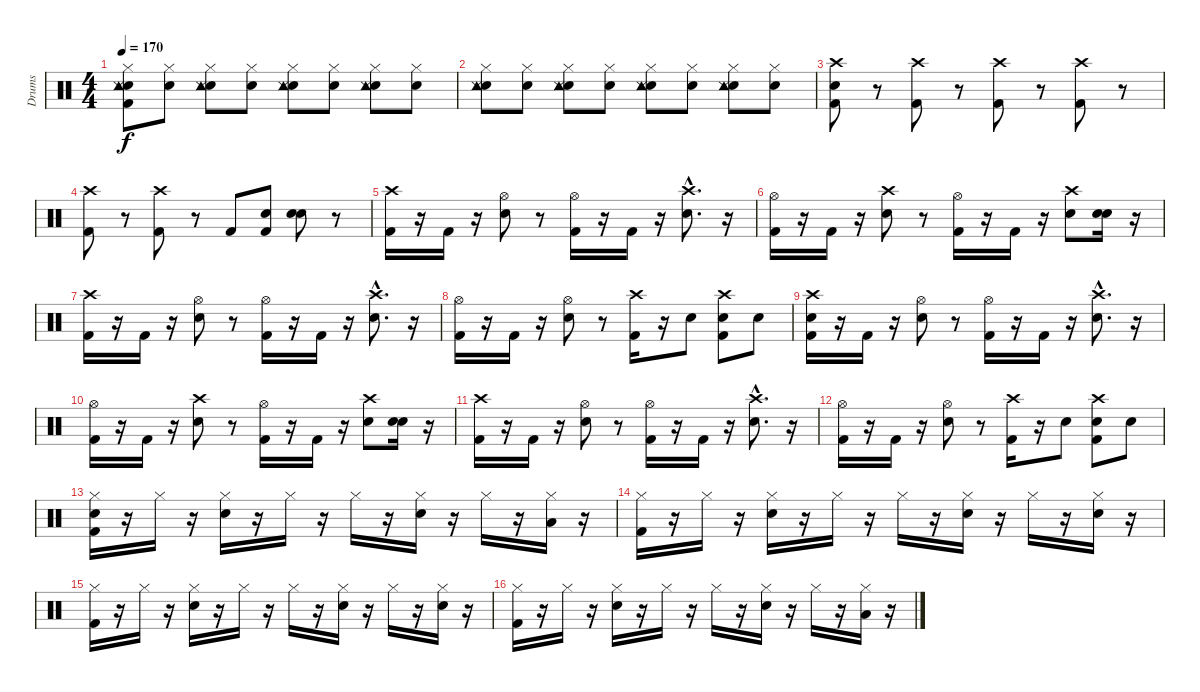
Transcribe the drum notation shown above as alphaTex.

\track ("Drums" "Drums") {instrument percussion}
\staff {score}
\articulation defaults
\ts (4 4)
\tempo 170
\clef neutral
\ks c
("Snare (hit)" "Kick (hit) 2" "Snare (side stick) 3" "Hi-Hat (closed)" "Tambourine (hit)").8{dy f} ("Snare (hit)" "Hi-Hat (closed)").8 ("Snare (hit)" "Snare (side stick) 3" "Hi-Hat (closed)" "Tambourine (hit)").8 ("Snare (hit)" "Hi-Hat (closed)").8 ("Snare (hit)" "Snare (side stick) 3" "Hi-Hat (closed)" "Tambourine (hit)").8 ("Snare (hit)" "Hi-Hat (closed)").8 ("Snare (hit)" "Snare (side stick) 3" "Hi-Hat (closed)" "Tambourine (hit)").8 ("Snare (hit)" "Hi-Hat (closed)").8 |
("Snare (hit)" "Snare (side stick) 3" "Hi-Hat (closed)" "Tambourine (hit)").8 ("Snare (hit)" "Hi-Hat (closed)").8 ("Snare (hit)" "Snare (side stick) 3" "Hi-Hat (closed)" "Tambourine (hit)").8 ("Snare (hit)" "Hi-Hat (closed)").8 ("Snare (hit)" "Snare (side stick) 3" "Hi-Hat (closed)" "Tambourine (hit)").8 ("Snare (hit)" "Hi-Hat (closed)").8 ("Snare (hit)" "Snare (side stick) 3" "Hi-Hat (closed)" "Tambourine (hit)").8 ("Snare (hit)" "Hi-Hat (closed)").8 |
("Snare (hit)" "Kick (hit) 2" "Crash high (hit)").8 r.8 ("Kick (hit) 2" "Crash high (hit)").8 r.8 ("Kick (hit) 2" "Crash high (hit)").8 r.8 ("Kick (hit) 2" "Crash high (hit)").8 r.8 |
("Kick (hit) 2" "Crash high (hit)").8 r.8 ("Kick (hit) 2" "Crash high (hit)").8 r.8 "Kick (hit) 2".8 ("Snare (hit)" "Kick (hit) 2").8 ("Snare (hit)" "Electric Snare (hit)").8 r.8 |
("Kick (hit) 2" "Crash high (hit)").16 r.16 "Kick (hit) 2".16 r.16 ("Electric Snare (hit)" "Hi-Hat (open)").8 r.8 ("Kick (hit) 2" "Hi-Hat (open)").16 r.16 "Kick (hit) 2".16 r.16 ("Electric Snare (hit)"{hac} "Crash high (hit)"{hac}).8{d} r.16 |
("Kick (hit) 2" "Hi-Hat (open)").16 r.16 "Kick (hit) 2".16 r.16 ("Electric Snare (hit)" "Crash high (hit)").8 r.8 ("Kick (hit) 2" "Hi-Hat (open)").16 r.16 "Kick (hit) 2".16 r.16 ("Electric Snare (hit)" "Crash high (hit)").8 ("Snare (hit)" "Electric Snare (hit)").16 r.16 |
("Kick (hit) 2" "Crash high (hit)").16 r.16 "Kick (hit) 2".16 r.16 ("Electric Snare (hit)" "Hi-Hat (open)").8 r.8 ("Kick (hit) 2" "Hi-Hat (open)").16 r.16 "Kick (hit) 2".16 r.16 ("Electric Snare (hit)"{hac} "Crash high (hit)"{hac}).8{d} r.16 |
("Kick (hit) 2" "Hi-Hat (open)").16 r.16 "Kick (hit) 2".16 r.16 ("Electric Snare (hit)" "Hi-Hat (open)").8 r.8 ("Kick (hit) 2" "Crash high (hit)").16 r.16 "Electric Snare (hit)".8 ("Snare (hit)" "Kick (hit) 2" "Crash high (hit)").8 "Electric Snare (hit)".8 |
("Snare (hit)" "Kick (hit) 2" "Crash high (hit)").16 r.16 "Kick (hit) 2".16 r.16 ("Electric Snare (hit)" "Hi-Hat (open)").8 r.8 ("Kick (hit) 2" "Hi-Hat (open)").16 r.16 "Kick (hit) 2".16 r.16 ("Electric Snare (hit)"{hac} "Crash high (hit)"{hac}).8{d} r.16 |
("Kick (hit) 2" "Hi-Hat (open)").16 r.16 "Kick (hit) 2".16 r.16 ("Electric Snare (hit)" "Crash high (hit)").8 r.8 ("Kick (hit) 2" "Hi-Hat (open)").16 r.16 "Kick (hit) 2".16 r.16 ("Electric Snare (hit)" "Crash high (hit)").8 ("Snare (hit)" "Electric Snare (hit)").16 r.16 |
("Kick (hit) 2" "Crash high (hit)").16 r.16 "Kick (hit) 2".16 r.16 ("Electric Snare (hit)" "Hi-Hat (open)").8 r.8 ("Kick (hit) 2" "Hi-Hat (open)").16 r.16 "Kick (hit) 2".16 r.16 ("Electric Snare (hit)"{hac} "Crash high (hit)"{hac}).8{d} r.16 |
("Kick (hit) 2" "Hi-Hat (open)").16 r.16 "Kick (hit) 2".16 r.16 ("Electric Snare (hit)" "Hi-Hat (open)").8 r.8 ("Kick (hit) 2" "Crash high (hit)").16 r.16 "Electric Snare (hit)".8 ("Snare (hit)" "Kick (hit) 2" "Crash high (hit)").8 "Electric Snare (hit)".8 |
("Snare (hit)" "Kick (hit) 2" "Hi-Hat (closed)").16 r.16 "Hi-Hat (closed)".16 r.16 ("Electric Snare (hit)" "Hi-Hat (closed)").16 r.16 "Hi-Hat (closed)".16 r.16 "Hi-Hat (closed)".16 r.16 ("Electric Snare (hit)" "Hi-Hat (closed)").16 r.16 "Hi-Hat (closed)".16 r.16 ("Low Floor Tom (hit)" "Hi-Hat (closed)").16 r.16 |
("Kick (hit) 2" "Hi-Hat (closed)").16 r.16 "Hi-Hat (closed)".16 r.16 ("Electric Snare (hit)" "Hi-Hat (closed)").16 r.16 "Hi-Hat (closed)".16 r.16 "Hi-Hat (closed)".16 r.16 ("Electric Snare (hit)" "Hi-Hat (closed)").16 r.16 "Hi-Hat (closed)".16 r.16 ("Electric Snare (hit)" "Hi-Hat (closed)").16 r.16 |
("Kick (hit) 2" "Hi-Hat (closed)").16 r.16 "Hi-Hat (closed)".16 r.16 ("Electric Snare (hit)" "Hi-Hat (closed)").16 r.16 "Hi-Hat (closed)".16 r.16 "Hi-Hat (closed)".16 r.16 ("Electric Snare (hit)" "Hi-Hat (closed)").16 r.16 "Hi-Hat (closed)".16 r.16 ("Electric Snare (hit)" "Hi-Hat (closed)").16 r.16 |
("Kick (hit) 2" "Hi-Hat (closed)").16 r.16 "Hi-Hat (closed)".16 r.16 ("Electric Snare (hit)" "Hi-Hat (closed)").16 r.16 "Hi-Hat (closed)".16 r.16 "Hi-Hat (closed)".16 r.16 ("Electric Snare (hit)" "Hi-Hat (closed)").16 r.16 "Hi-Hat (closed)".16 r.16 ("Low Floor Tom (hit)" "Hi-Hat (closed)").16 r.16
